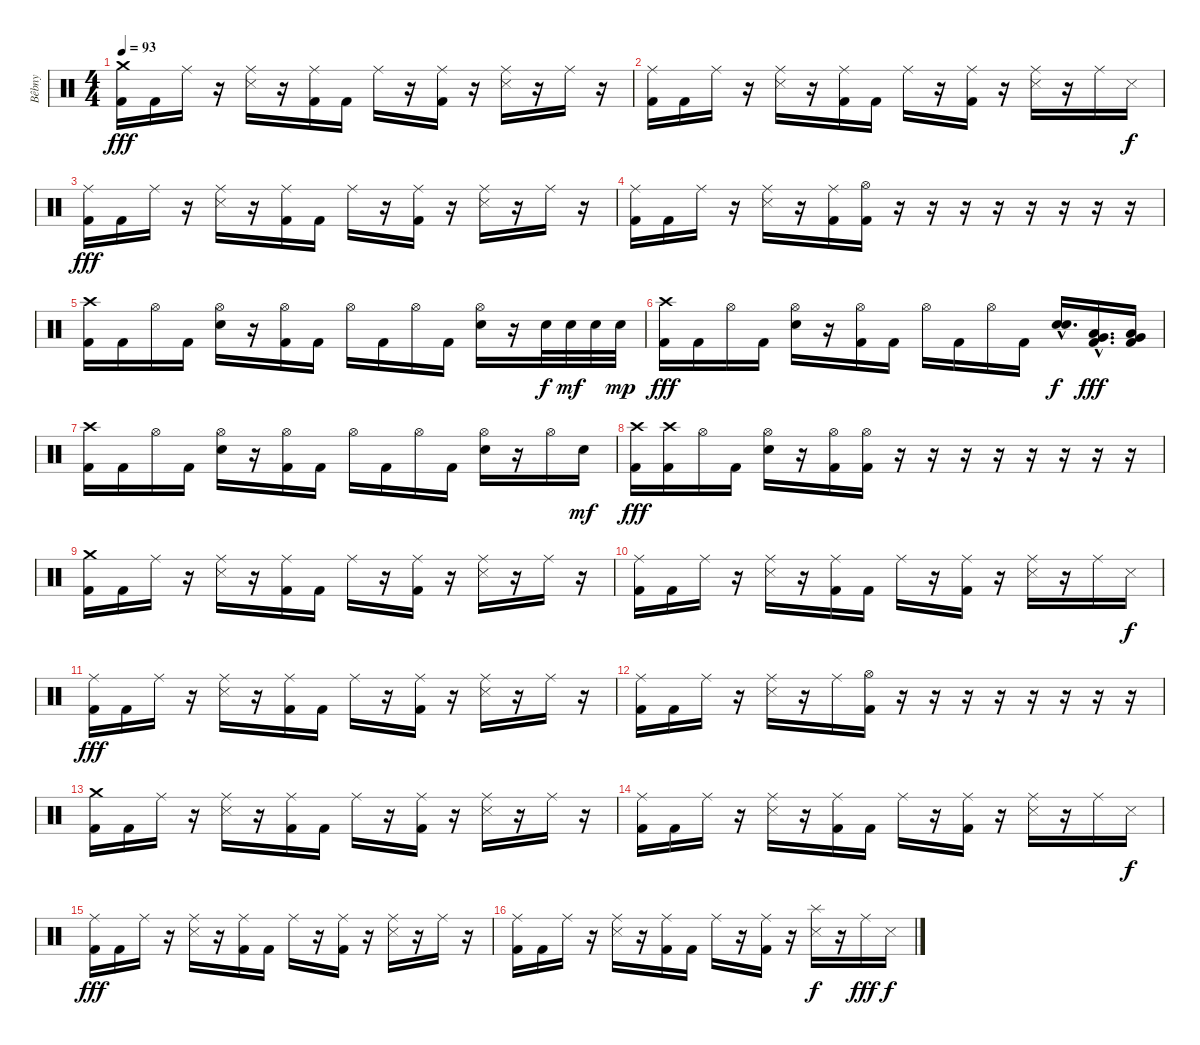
\track ("Bêbny" "Bêbny") {instrument percussion}
\staff {score}
\articulation defaults
\ts (4 4)
\tempo 93
\clef neutral
\ks c
("Crash medium (hit)" "Kick (hit) 2").16{dy fff} "Kick (hit) 2".16 "Ride (middle)".16 r.16 ("Ride (middle)" "Snare (side stick) 3").16 r.16 ("Ride (middle)" "Kick (hit) 2").16 "Kick (hit) 2".16 "Ride (middle)".16 r.16 ("Ride (middle)" "Kick (hit) 2").16 r.16 ("Ride (middle)" "Snare (side stick) 3").16 r.16 "Ride (middle)".16 r.16 |
("Ride (middle)" "Kick (hit) 2").16 "Kick (hit) 2".16 "Ride (middle)".16 r.16 ("Ride (middle)" "Snare (side stick) 3").16 r.16 ("Ride (middle)" "Kick (hit) 2").16 "Kick (hit) 2".16 "Ride (middle)".16 r.16 ("Ride (middle)" "Kick (hit) 2").16 r.16 ("Ride (middle)" "Snare (side stick) 3").16 r.16 "Ride (middle)".16 "Snare (side stick) 3".16{dy f} |
("Ride (middle)" "Kick (hit) 2").16{dy fff} "Kick (hit) 2".16 "Ride (middle)".16 r.16 ("Ride (middle)" "Snare (side stick) 3").16 r.16 ("Ride (middle)" "Kick (hit) 2").16 "Kick (hit) 2".16 "Ride (middle)".16 r.16 ("Ride (middle)" "Kick (hit) 2").16 r.16 ("Ride (middle)" "Snare (side stick) 3").16 r.16 "Ride (middle)".16 r.16 |
("Ride (middle)" "Kick (hit) 2").16 "Kick (hit) 2".16 "Ride (middle)".16 r.16 ("Ride (middle)" "Snare (side stick) 3").16 r.16 ("Ride (middle)" "Kick (hit) 2").16 ("Hi-Hat (open)" "Kick (hit) 2").16 r.16 r.16 r.16 r.16 r.16 r.16 r.16 r.16 |
("Crash high (hit)" "Kick (hit) 2").16 "Kick (hit) 2".16 "Hi-Hat (open)".16 "Kick (hit) 2".16 ("Hi-Hat (open)" "Electric Snare (hit)").16 r.16 ("Hi-Hat (open)" "Kick (hit) 2").16 "Kick (hit) 2".16 "Hi-Hat (open)".16 "Kick (hit) 2".16 "Hi-Hat (open)".16 "Kick (hit) 2".16 ("Hi-Hat (open)" "Electric Snare (hit)").16 r.16 "Electric Snare (hit)".32{dy f} "Electric Snare (hit)".32{dy mf} "Electric Snare (hit)".32 "Electric Snare (hit)".32{dy mp} |
("Crash high (hit)" "Kick (hit) 2").16{dy fff} "Kick (hit) 2".16 "Hi-Hat (open)".16 "Kick (hit) 2".16 ("Hi-Hat (open)" "Electric Snare (hit)").16 r.16 ("Hi-Hat (open)" "Kick (hit) 2").16 "Kick (hit) 2".16 "Hi-Hat (open)".16 "Kick (hit) 2".16 "Hi-Hat (open)".16 "Kick (hit) 2".16 ("Electric Snare (hit)"{hac} "Electric Snare (hit)"{hac}).16{d bd 120 dy f} ("Very Low Tom (hit)"{hac} "Low Floor Tom (hit)"{hac} "Kick (hit) 2"{hac}).16{d dy fff} ("Very Low Tom (hit)" "Low Floor Tom (hit)" "Kick (hit) 2").16 |
("Crash high (hit)" "Kick (hit) 2").16 "Kick (hit) 2".16 "Hi-Hat (open)".16 "Kick (hit) 2".16 ("Hi-Hat (open)" "Electric Snare (hit)").16 r.16 ("Hi-Hat (open)" "Kick (hit) 2").16 "Kick (hit) 2".16 "Hi-Hat (open)".16 "Kick (hit) 2".16 "Hi-Hat (open)".16 "Kick (hit) 2".16 ("Hi-Hat (open)" "Electric Snare (hit)").16 r.16 "Hi-Hat (open)".16 "Electric Snare (hit)".16{dy mf} |
("Crash high (hit)" "Kick (hit) 2").16{dy fff} ("Crash high (hit)" "Kick (hit) 2").16 "Hi-Hat (open)".16 "Kick (hit) 2".16 ("Hi-Hat (open)" "Electric Snare (hit)").16 r.16 ("Hi-Hat (open)" "Kick (hit) 2").16 ("Hi-Hat (open)" "Kick (hit) 2").16 r.16 r.16 r.16 r.16 r.16 r.16 r.16 r.16 |
("Crash medium (hit)" "Kick (hit) 2").16 "Kick (hit) 2".16 "Ride (middle)".16 r.16 ("Ride (middle)" "Snare (side stick) 3").16 r.16 ("Ride (middle)" "Kick (hit) 2").16 "Kick (hit) 2".16 "Ride (middle)".16 r.16 ("Ride (middle)" "Kick (hit) 2").16 r.16 ("Ride (middle)" "Snare (side stick) 3").16 r.16 "Ride (middle)".16 r.16 |
("Ride (middle)" "Kick (hit) 2").16 "Kick (hit) 2".16 "Ride (middle)".16 r.16 ("Ride (middle)" "Snare (side stick) 3").16 r.16 ("Ride (middle)" "Kick (hit) 2").16 "Kick (hit) 2".16 "Ride (middle)".16 r.16 ("Ride (middle)" "Kick (hit) 2").16 r.16 ("Ride (middle)" "Snare (side stick) 3").16 r.16 "Ride (middle)".16 "Snare (side stick) 3".16{dy f} |
("Ride (middle)" "Kick (hit) 2").16{dy fff} "Kick (hit) 2".16 "Ride (middle)".16 r.16 ("Ride (middle)" "Snare (side stick) 3").16 r.16 ("Ride (middle)" "Kick (hit) 2").16 "Kick (hit) 2".16 "Ride (middle)".16 r.16 ("Ride (middle)" "Kick (hit) 2").16 r.16 ("Ride (middle)" "Snare (side stick) 3").16 r.16 "Ride (middle)".16 r.16 |
("Ride (middle)" "Kick (hit) 2").16 "Kick (hit) 2".16 "Ride (middle)".16 r.16 ("Ride (middle)" "Snare (side stick) 3").16 r.16 "Ride (middle)".16 ("Hi-Hat (open)" "Kick (hit) 2").16 r.16 r.16 r.16 r.16 r.16 r.16 r.16 r.16 |
("Crash medium (hit)" "Kick (hit) 2").16 "Kick (hit) 2".16 "Ride (middle)".16 r.16 ("Ride (middle)" "Snare (side stick) 3").16 r.16 ("Ride (middle)" "Kick (hit) 2").16 "Kick (hit) 2".16 "Ride (middle)".16 r.16 ("Ride (middle)" "Kick (hit) 2").16 r.16 ("Ride (middle)" "Snare (side stick) 3").16 r.16 "Ride (middle)".16 r.16 |
("Ride (middle)" "Kick (hit) 2").16 "Kick (hit) 2".16 "Ride (middle)".16 r.16 ("Ride (middle)" "Snare (side stick) 3").16 r.16 ("Ride (middle)" "Kick (hit) 2").16 "Kick (hit) 2".16 "Ride (middle)".16 r.16 ("Ride (middle)" "Kick (hit) 2").16 r.16 ("Ride (middle)" "Snare (side stick) 3").16 r.16 "Ride (middle)".16 "Snare (side stick) 3".16{dy f} |
("Ride (middle)" "Kick (hit) 2").16{dy fff} "Kick (hit) 2".16 "Ride (middle)".16 r.16 ("Ride (middle)" "Snare (side stick) 3").16 r.16 ("Ride (middle)" "Kick (hit) 2").16 "Kick (hit) 2".16 "Ride (middle)".16 r.16 ("Ride (middle)" "Kick (hit) 2").16 r.16 ("Ride (middle)" "Snare (side stick) 3").16 r.16 "Ride (middle)".16 r.16 |
("Ride (middle)" "Kick (hit) 2").16 "Kick (hit) 2".16 "Ride (middle)".16 r.16 ("Ride (middle)" "Snare (side stick) 3").16 r.16 ("Ride (middle)" "Kick (hit) 2").16 "Kick (hit) 2".16 "Ride (middle)".16 r.16 ("Ride (middle)" "Kick (hit) 2").16 r.16 ("Splash (hit)" "Snare (side stick) 3").16{dy f} r.16 "Ride (middle)".16{dy fff} "Snare (side stick) 3".16{dy f}
